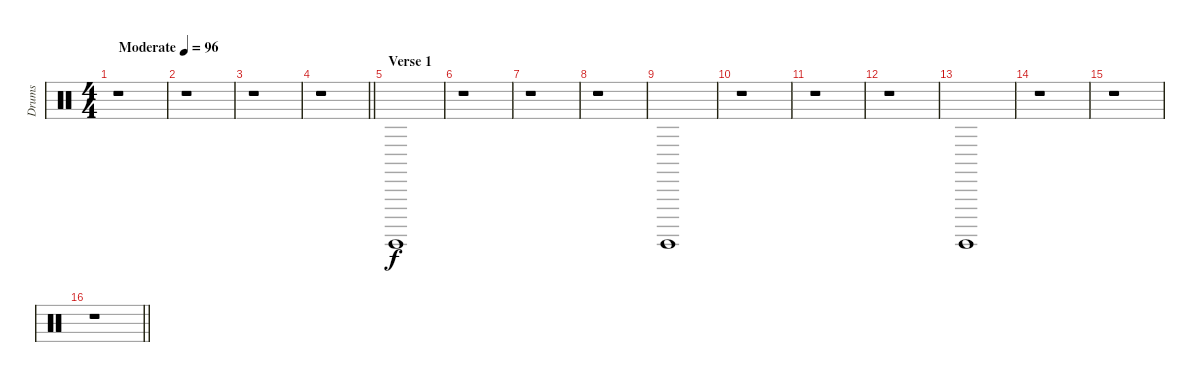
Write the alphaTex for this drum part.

\track ("Drums" "Drums") {instrument percussion}
\staff {score}
\articulation defaults
\ts (4 4)
\tempo (96 "Moderate")
\clef neutral
\ks c
r.1{dy f} |
r.1 |
r.1 |
\barLineRight lightlight
r.1 |
\section ("" "Verse 1")
"Surdo (hit)".1 |
r.1 |
r.1 |
r.1 |
"Surdo (hit)".1 |
r.1 |
r.1 |
r.1 |
"Surdo (hit)".1 |
r.1 |
r.1 |
\barLineRight lightlight
r.1
